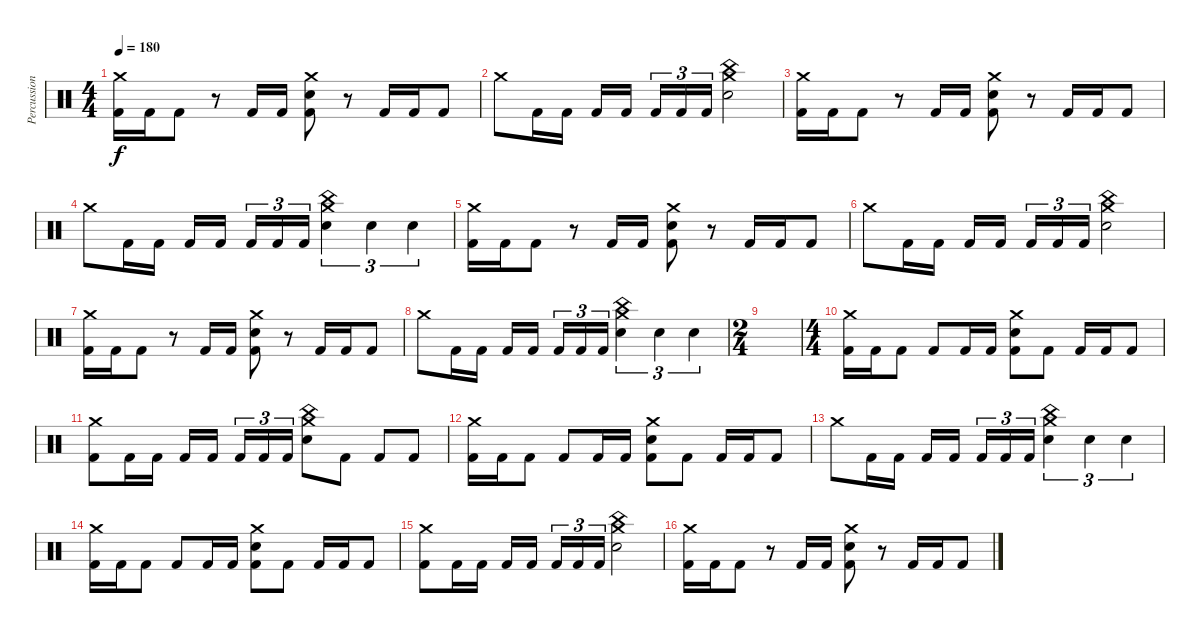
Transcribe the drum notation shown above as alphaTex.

\track ("Percussion" "Percussion") {instrument percussion}
\staff {score}
\articulation defaults
\ts (4 4)
\tempo 180
\clef neutral
\ks c
("Crash medium (hit)" "Kick (hit) 2").16{dy f} "Kick (hit) 2".16 "Kick (hit) 2".8 r.8 "Kick (hit) 2".16 "Kick (hit) 2".16 ("Crash medium (hit)" "Electric Snare (hit)" "Kick (hit) 2").8 r.8 "Kick (hit) 2".16 "Kick (hit) 2".16 "Kick (hit) 2".8 |
"Crash medium (hit)".8 "Kick (hit) 2".16 "Kick (hit) 2".16 "Kick (hit) 2".16 "Kick (hit) 2".16{beam splitsecondary} "Kick (hit) 2".16{tu (3 2)} "Kick (hit) 2".16{tu (3 2)} "Kick (hit) 2".16{tu (3 2)} ("Crash medium (hit)" "China (hit)" "Electric Snare (hit)").2 |
("Crash medium (hit)" "Kick (hit) 2").16 "Kick (hit) 2".16 "Kick (hit) 2".8 r.8 "Kick (hit) 2".16 "Kick (hit) 2".16 ("Crash medium (hit)" "Electric Snare (hit)" "Kick (hit) 2").8 r.8 "Kick (hit) 2".16 "Kick (hit) 2".16 "Kick (hit) 2".8 |
"Crash medium (hit)".8 "Kick (hit) 2".16 "Kick (hit) 2".16 "Kick (hit) 2".16 "Kick (hit) 2".16{beam splitsecondary} "Kick (hit) 2".16{tu (3 2)} "Kick (hit) 2".16{tu (3 2)} "Kick (hit) 2".16{tu (3 2)} ("Crash medium (hit)" "China (hit)" "Electric Snare (hit)").4{tu (3 2)} "Electric Snare (hit)".4{tu (3 2)} "Electric Snare (hit)".4{tu (3 2)} |
("Crash medium (hit)" "Kick (hit) 2").16 "Kick (hit) 2".16 "Kick (hit) 2".8 r.8 "Kick (hit) 2".16 "Kick (hit) 2".16 ("Crash medium (hit)" "Electric Snare (hit)" "Kick (hit) 2").8 r.8 "Kick (hit) 2".16 "Kick (hit) 2".16 "Kick (hit) 2".8 |
"Crash medium (hit)".8 "Kick (hit) 2".16 "Kick (hit) 2".16 "Kick (hit) 2".16 "Kick (hit) 2".16{beam splitsecondary} "Kick (hit) 2".16{tu (3 2)} "Kick (hit) 2".16{tu (3 2)} "Kick (hit) 2".16{tu (3 2)} ("Crash medium (hit)" "China (hit)" "Electric Snare (hit)").2 |
("Crash medium (hit)" "Kick (hit) 2").16 "Kick (hit) 2".16 "Kick (hit) 2".8 r.8 "Kick (hit) 2".16 "Kick (hit) 2".16 ("Crash medium (hit)" "Electric Snare (hit)" "Kick (hit) 2").8 r.8 "Kick (hit) 2".16 "Kick (hit) 2".16 "Kick (hit) 2".8 |
"Crash medium (hit)".8 "Kick (hit) 2".16 "Kick (hit) 2".16 "Kick (hit) 2".16 "Kick (hit) 2".16{beam splitsecondary} "Kick (hit) 2".16{tu (3 2)} "Kick (hit) 2".16{tu (3 2)} "Kick (hit) 2".16{tu (3 2)} ("Crash medium (hit)" "China (hit)" "Electric Snare (hit)").4{tu (3 2)} "Electric Snare (hit)".4{tu (3 2)} "Electric Snare (hit)".4{tu (3 2)} |
\ts (2 4)
|
\ts (4 4)
("Crash medium (hit)" "Kick (hit) 2").16 "Kick (hit) 2".16 "Kick (hit) 2".8 "Kick (hit) 2".8 "Kick (hit) 2".16 "Kick (hit) 2".16 ("Crash medium (hit)" "Electric Snare (hit)" "Kick (hit) 2").8 "Kick (hit) 2".8 "Kick (hit) 2".16 "Kick (hit) 2".16 "Kick (hit) 2".8 |
("Crash medium (hit)" "Kick (hit) 2").8 "Kick (hit) 2".16 "Kick (hit) 2".16 "Kick (hit) 2".16 "Kick (hit) 2".16{beam splitsecondary} "Kick (hit) 2".16{tu (3 2)} "Kick (hit) 2".16{tu (3 2)} "Kick (hit) 2".16{tu (3 2)} ("Crash medium (hit)" "China (hit)" "Electric Snare (hit)").8 "Kick (hit) 2".8 "Kick (hit) 2".8 "Kick (hit) 2".8 |
("Crash medium (hit)" "Kick (hit) 2").16 "Kick (hit) 2".16 "Kick (hit) 2".8 "Kick (hit) 2".8 "Kick (hit) 2".16 "Kick (hit) 2".16 ("Crash medium (hit)" "Electric Snare (hit)" "Kick (hit) 2").8 "Kick (hit) 2".8 "Kick (hit) 2".16 "Kick (hit) 2".16 "Kick (hit) 2".8 |
"Crash medium (hit)".8 "Kick (hit) 2".16 "Kick (hit) 2".16 "Kick (hit) 2".16 "Kick (hit) 2".16{beam splitsecondary} "Kick (hit) 2".16{tu (3 2)} "Kick (hit) 2".16{tu (3 2)} "Kick (hit) 2".16{tu (3 2)} ("Crash medium (hit)" "China (hit)" "Electric Snare (hit)").4{tu (3 2)} "Electric Snare (hit)".4{tu (3 2)} "Electric Snare (hit)".4{tu (3 2)} |
("Crash medium (hit)" "Kick (hit) 2").16 "Kick (hit) 2".16 "Kick (hit) 2".8 "Kick (hit) 2".8 "Kick (hit) 2".16 "Kick (hit) 2".16 ("Crash medium (hit)" "Electric Snare (hit)" "Kick (hit) 2").8 "Kick (hit) 2".8 "Kick (hit) 2".16 "Kick (hit) 2".16 "Kick (hit) 2".8 |
("Crash medium (hit)" "Kick (hit) 2").8 "Kick (hit) 2".16 "Kick (hit) 2".16 "Kick (hit) 2".16 "Kick (hit) 2".16{beam splitsecondary} "Kick (hit) 2".16{tu (3 2)} "Kick (hit) 2".16{tu (3 2)} "Kick (hit) 2".16{tu (3 2)} ("Crash medium (hit)" "China (hit)" "Electric Snare (hit)").2 |
("Crash medium (hit)" "Kick (hit) 2").16 "Kick (hit) 2".16 "Kick (hit) 2".8 r.8 "Kick (hit) 2".16 "Kick (hit) 2".16 ("Crash medium (hit)" "Electric Snare (hit)" "Kick (hit) 2").8 r.8 "Kick (hit) 2".16 "Kick (hit) 2".16 "Kick (hit) 2".8
